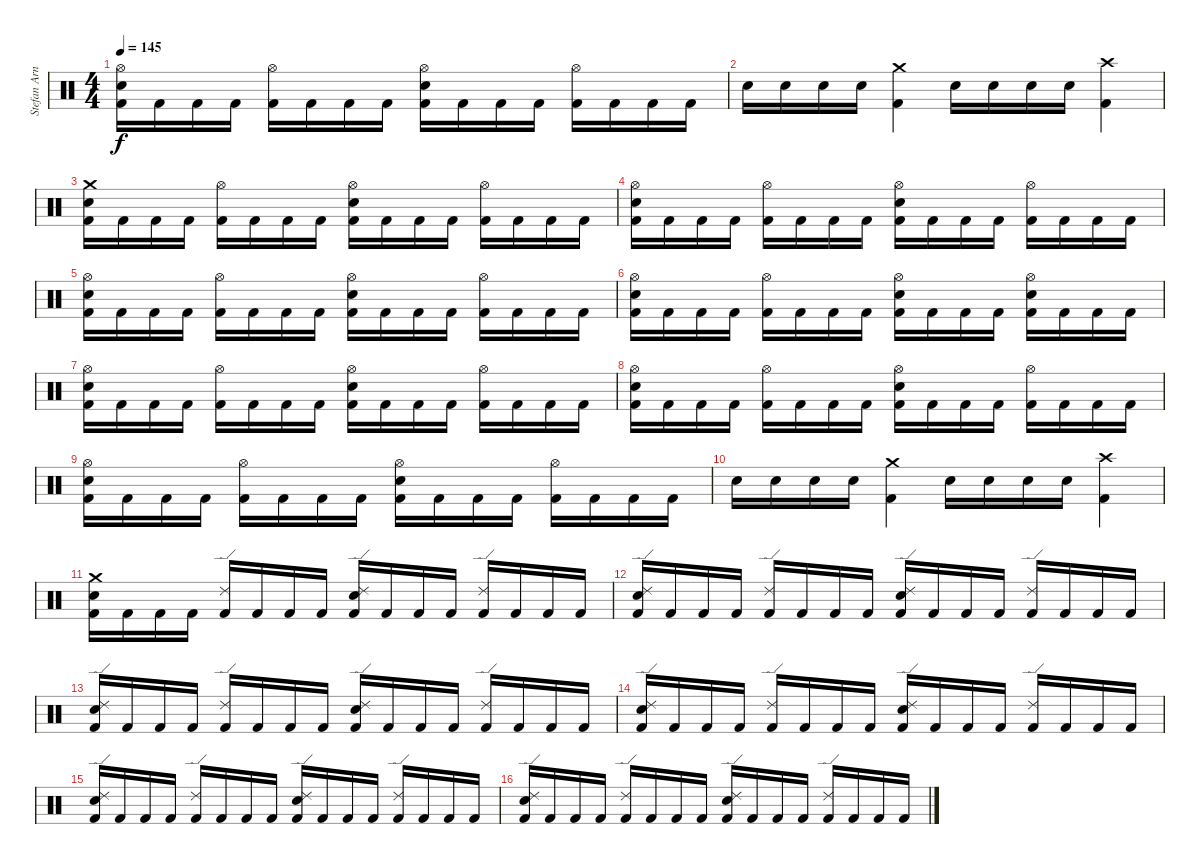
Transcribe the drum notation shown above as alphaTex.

\track ("Stefan Arnold" "Stefan Arn") {instrument percussion}
\staff {score}
\articulation defaults
\ts (4 4)
\tempo 145
\clef neutral
\ks c
("Hi-Hat (open)" "Electric Snare (hit)" "Kick (hit) 2").16{dy f} "Kick (hit) 2".16 "Kick (hit) 2".16 "Kick (hit) 2".16 ("Hi-Hat (open)" "Kick (hit) 2").16 "Kick (hit) 2".16 "Kick (hit) 2".16 "Kick (hit) 2".16 ("Hi-Hat (open)" "Electric Snare (hit)" "Kick (hit) 2").16 "Kick (hit) 2".16 "Kick (hit) 2".16 "Kick (hit) 2".16 ("Hi-Hat (open)" "Kick (hit) 2").16 "Kick (hit) 2".16 "Kick (hit) 2".16 "Kick (hit) 2".16 |
"Electric Snare (hit)".16 "Electric Snare (hit)".16 "Electric Snare (hit)".16 "Electric Snare (hit)".16 ("Crash medium (hit)" "Kick (hit) 2").4 "Electric Snare (hit)".16 "Electric Snare (hit)".16 "Electric Snare (hit)".16 "Electric Snare (hit)".16 ("Crash high (hit)" "Kick (hit) 2").4 |
("Crash medium (hit)" "Electric Snare (hit)" "Kick (hit) 2").16 "Kick (hit) 2".16 "Kick (hit) 2".16 "Kick (hit) 2".16 ("Hi-Hat (open)" "Kick (hit) 2").16 "Kick (hit) 2".16 "Kick (hit) 2".16 "Kick (hit) 2".16 ("Hi-Hat (open)" "Electric Snare (hit)" "Kick (hit) 2").16 "Kick (hit) 2".16 "Kick (hit) 2".16 "Kick (hit) 2".16 ("Hi-Hat (open)" "Kick (hit) 2").16 "Kick (hit) 2".16 "Kick (hit) 2".16 "Kick (hit) 2".16 |
("Hi-Hat (open)" "Electric Snare (hit)" "Kick (hit) 2").16 "Kick (hit) 2".16 "Kick (hit) 2".16 "Kick (hit) 2".16 ("Hi-Hat (open)" "Kick (hit) 2").16 "Kick (hit) 2".16 "Kick (hit) 2".16 "Kick (hit) 2".16 ("Hi-Hat (open)" "Electric Snare (hit)" "Kick (hit) 2").16 "Kick (hit) 2".16 "Kick (hit) 2".16 "Kick (hit) 2".16 ("Hi-Hat (open)" "Kick (hit) 2").16 "Kick (hit) 2".16 "Kick (hit) 2".16 "Kick (hit) 2".16 |
("Hi-Hat (open)" "Electric Snare (hit)" "Kick (hit) 2").16 "Kick (hit) 2".16 "Kick (hit) 2".16 "Kick (hit) 2".16 ("Hi-Hat (open)" "Kick (hit) 2").16 "Kick (hit) 2".16 "Kick (hit) 2".16 "Kick (hit) 2".16 ("Hi-Hat (open)" "Electric Snare (hit)" "Kick (hit) 2").16 "Kick (hit) 2".16 "Kick (hit) 2".16 "Kick (hit) 2".16 ("Hi-Hat (open)" "Kick (hit) 2").16 "Kick (hit) 2".16 "Kick (hit) 2".16 "Kick (hit) 2".16 |
("Hi-Hat (open)" "Electric Snare (hit)" "Kick (hit) 2").16 "Kick (hit) 2".16 "Kick (hit) 2".16 "Kick (hit) 2".16 ("Hi-Hat (open)" "Kick (hit) 2").16 "Kick (hit) 2".16 "Kick (hit) 2".16 "Kick (hit) 2".16 ("Hi-Hat (open)" "Electric Snare (hit)" "Kick (hit) 2").16 "Kick (hit) 2".16 "Kick (hit) 2".16 "Kick (hit) 2".16 ("Hi-Hat (open)" "Electric Snare (hit)" "Kick (hit) 2").16 "Kick (hit) 2".16 "Kick (hit) 2".16 "Kick (hit) 2".16 |
("Hi-Hat (open)" "Electric Snare (hit)" "Kick (hit) 2").16 "Kick (hit) 2".16 "Kick (hit) 2".16 "Kick (hit) 2".16 ("Hi-Hat (open)" "Kick (hit) 2").16 "Kick (hit) 2".16 "Kick (hit) 2".16 "Kick (hit) 2".16 ("Hi-Hat (open)" "Electric Snare (hit)" "Kick (hit) 2").16 "Kick (hit) 2".16 "Kick (hit) 2".16 "Kick (hit) 2".16 ("Hi-Hat (open)" "Kick (hit) 2").16 "Kick (hit) 2".16 "Kick (hit) 2".16 "Kick (hit) 2".16 |
("Hi-Hat (open)" "Electric Snare (hit)" "Kick (hit) 2").16 "Kick (hit) 2".16 "Kick (hit) 2".16 "Kick (hit) 2".16 ("Hi-Hat (open)" "Kick (hit) 2").16 "Kick (hit) 2".16 "Kick (hit) 2".16 "Kick (hit) 2".16 ("Hi-Hat (open)" "Electric Snare (hit)" "Kick (hit) 2").16 "Kick (hit) 2".16 "Kick (hit) 2".16 "Kick (hit) 2".16 ("Hi-Hat (open)" "Kick (hit) 2").16 "Kick (hit) 2".16 "Kick (hit) 2".16 "Kick (hit) 2".16 |
("Hi-Hat (open)" "Electric Snare (hit)" "Kick (hit) 2").16 "Kick (hit) 2".16 "Kick (hit) 2".16 "Kick (hit) 2".16 ("Hi-Hat (open)" "Kick (hit) 2").16 "Kick (hit) 2".16 "Kick (hit) 2".16 "Kick (hit) 2".16 ("Hi-Hat (open)" "Electric Snare (hit)" "Kick (hit) 2").16 "Kick (hit) 2".16 "Kick (hit) 2".16 "Kick (hit) 2".16 ("Hi-Hat (open)" "Kick (hit) 2").16 "Kick (hit) 2".16 "Kick (hit) 2".16 "Kick (hit) 2".16 |
"Electric Snare (hit)".16 "Electric Snare (hit)".16 "Electric Snare (hit)".16 "Electric Snare (hit)".16 ("Crash medium (hit)" "Kick (hit) 2").4 "Electric Snare (hit)".16 "Electric Snare (hit)".16 "Electric Snare (hit)".16 "Electric Snare (hit)".16 ("Crash high (hit)" "Kick (hit) 2").4 |
("Crash medium (hit)" "Electric Snare (hit)" "Kick (hit) 2").16 "Kick (hit) 2".16 "Kick (hit) 2".16 "Kick (hit) 2".16 ("Ride (edge) 2" "Kick (hit) 2").16 "Kick (hit) 2".16 "Kick (hit) 2".16 "Kick (hit) 2".16 ("Ride (edge) 2" "Electric Snare (hit)" "Kick (hit) 2").16 "Kick (hit) 2".16 "Kick (hit) 2".16 "Kick (hit) 2".16 ("Ride (edge) 2" "Kick (hit) 2").16 "Kick (hit) 2".16 "Kick (hit) 2".16 "Kick (hit) 2".16 |
("Ride (edge) 2" "Electric Snare (hit)" "Kick (hit) 2").16 "Kick (hit) 2".16 "Kick (hit) 2".16 "Kick (hit) 2".16 ("Ride (edge) 2" "Kick (hit) 2").16 "Kick (hit) 2".16 "Kick (hit) 2".16 "Kick (hit) 2".16 ("Ride (edge) 2" "Electric Snare (hit)" "Kick (hit) 2").16 "Kick (hit) 2".16 "Kick (hit) 2".16 "Kick (hit) 2".16 ("Ride (edge) 2" "Kick (hit) 2").16 "Kick (hit) 2".16 "Kick (hit) 2".16 "Kick (hit) 2".16 |
("Ride (edge) 2" "Electric Snare (hit)" "Kick (hit) 2").16 "Kick (hit) 2".16 "Kick (hit) 2".16 "Kick (hit) 2".16 ("Ride (edge) 2" "Kick (hit) 2").16 "Kick (hit) 2".16 "Kick (hit) 2".16 "Kick (hit) 2".16 ("Ride (edge) 2" "Electric Snare (hit)" "Kick (hit) 2").16 "Kick (hit) 2".16 "Kick (hit) 2".16 "Kick (hit) 2".16 ("Ride (edge) 2" "Kick (hit) 2").16 "Kick (hit) 2".16 "Kick (hit) 2".16 "Kick (hit) 2".16 |
("Ride (edge) 2" "Electric Snare (hit)" "Kick (hit) 2").16 "Kick (hit) 2".16 "Kick (hit) 2".16 "Kick (hit) 2".16 ("Ride (edge) 2" "Kick (hit) 2").16 "Kick (hit) 2".16 "Kick (hit) 2".16 "Kick (hit) 2".16 ("Ride (edge) 2" "Electric Snare (hit)" "Kick (hit) 2").16 "Kick (hit) 2".16 "Kick (hit) 2".16 "Kick (hit) 2".16 ("Ride (edge) 2" "Kick (hit) 2").16 "Kick (hit) 2".16 "Kick (hit) 2".16 "Kick (hit) 2".16 |
("Ride (edge) 2" "Electric Snare (hit)" "Kick (hit) 2").16 "Kick (hit) 2".16 "Kick (hit) 2".16 "Kick (hit) 2".16 ("Ride (edge) 2" "Kick (hit) 2").16 "Kick (hit) 2".16 "Kick (hit) 2".16 "Kick (hit) 2".16 ("Ride (edge) 2" "Electric Snare (hit)" "Kick (hit) 2").16 "Kick (hit) 2".16 "Kick (hit) 2".16 "Kick (hit) 2".16 ("Ride (edge) 2" "Kick (hit) 2").16 "Kick (hit) 2".16 "Kick (hit) 2".16 "Kick (hit) 2".16 |
("Ride (edge) 2" "Electric Snare (hit)" "Kick (hit) 2").16 "Kick (hit) 2".16 "Kick (hit) 2".16 "Kick (hit) 2".16 ("Ride (edge) 2" "Kick (hit) 2").16 "Kick (hit) 2".16 "Kick (hit) 2".16 "Kick (hit) 2".16 ("Ride (edge) 2" "Electric Snare (hit)" "Kick (hit) 2").16 "Kick (hit) 2".16 "Kick (hit) 2".16 "Kick (hit) 2".16 ("Ride (edge) 2" "Kick (hit) 2").16 "Kick (hit) 2".16 "Kick (hit) 2".16 "Kick (hit) 2".16
